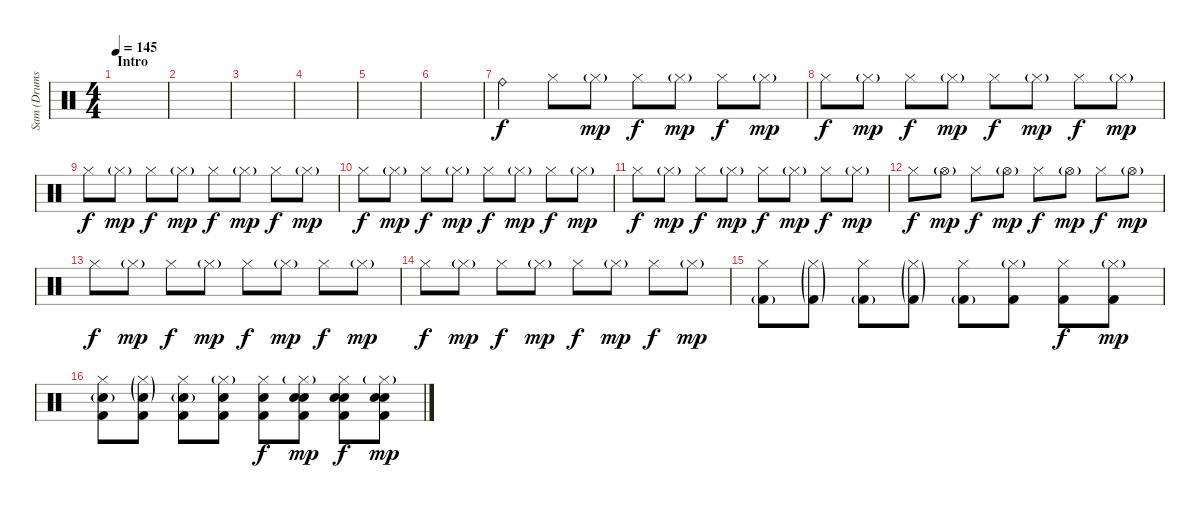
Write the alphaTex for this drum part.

\track ("Sam (Drums)" "Sam (Drums") {instrument percussion}
\staff {score}
\articulation defaults
\ts (4 4)
\section ("" "Intro")
\tempo 145
\clef neutral
\ks c
|
|
|
|
|
|
"Ride (bell)".4 "Hi-Hat (closed)".8 "Hi-Hat (closed)"{g}.8{dy mp} "Hi-Hat (closed)".8{dy f} "Hi-Hat (closed)"{g}.8{dy mp} "Hi-Hat (closed)".8{dy f} "Hi-Hat (closed)"{g}.8{dy mp} |
"Hi-Hat (closed)".8{dy f} "Hi-Hat (closed)"{g}.8{dy mp} "Hi-Hat (closed)".8{dy f} "Hi-Hat (closed)"{g}.8{dy mp} "Hi-Hat (closed)".8{dy f} "Hi-Hat (closed)"{g}.8{dy mp} "Hi-Hat (closed)".8{dy f} "Hi-Hat (closed)"{g}.8{dy mp} |
"Hi-Hat (closed)".8{dy f} "Hi-Hat (closed)"{g}.8{dy mp} "Hi-Hat (closed)".8{dy f} "Hi-Hat (closed)"{g}.8{dy mp} "Hi-Hat (closed)".8{dy f} "Hi-Hat (closed)"{g}.8{dy mp} "Hi-Hat (closed)".8{dy f} "Hi-Hat (closed)"{g}.8{dy mp} |
"Hi-Hat (closed)".8{dy f} "Hi-Hat (closed)"{g}.8{dy mp} "Hi-Hat (closed)".8{dy f} "Hi-Hat (closed)"{g}.8{dy mp} "Hi-Hat (closed)".8{dy f} "Hi-Hat (closed)"{g}.8{dy mp} "Hi-Hat (closed)".8{dy f} "Hi-Hat (closed)"{g}.8{dy mp} |
"Hi-Hat (closed)".8{dy f} "Hi-Hat (closed)"{g}.8{dy mp} "Hi-Hat (closed)".8{dy f} "Hi-Hat (closed)"{g}.8{dy mp} "Hi-Hat (closed)".8{dy f} "Hi-Hat (closed)"{g}.8{dy mp} "Hi-Hat (closed)".8{dy f} "Hi-Hat (closed)"{g}.8{dy mp} |
"Hi-Hat (closed)".8{dy f} "Hi-Hat (open)"{g}.8{dy mp} "Hi-Hat (closed)".8{dy f} "Hi-Hat (open)"{g}.8{dy mp} "Hi-Hat (closed)".8{dy f} "Hi-Hat (open)"{g}.8{dy mp} "Hi-Hat (closed)".8{dy f} "Hi-Hat (open)"{g}.8{dy mp} |
"Hi-Hat (closed)".8{dy f} "Hi-Hat (closed)"{g}.8{dy mp} "Hi-Hat (closed)".8{dy f} "Hi-Hat (closed)"{g}.8{dy mp} "Hi-Hat (closed)".8{dy f} "Hi-Hat (closed)"{g}.8{dy mp} "Hi-Hat (closed)".8{dy f} "Hi-Hat (closed)"{g}.8{dy mp} |
"Hi-Hat (closed)".8{dy f} "Hi-Hat (closed)"{g}.8{dy mp} "Hi-Hat (closed)".8{dy f} "Hi-Hat (closed)"{g}.8{dy mp} "Hi-Hat (closed)".8{dy f} "Hi-Hat (closed)"{g}.8{dy mp} "Hi-Hat (closed)".8{dy f} "Hi-Hat (closed)"{g}.8{dy mp} |
("Hi-Hat (closed)" "Kick (hit) 2"{g}).8 ("Hi-Hat (closed)"{g} "Kick (hit) 2"{g}).8 ("Hi-Hat (closed)" "Kick (hit) 2"{g}).8 ("Hi-Hat (closed)"{g} "Kick (hit) 2"{g}).8 ("Hi-Hat (closed)" "Kick (hit) 2"{g}).8 ("Hi-Hat (closed)"{g} "Kick (hit) 2").8 ("Hi-Hat (closed)" "Kick (hit) 2").8{dy f} ("Hi-Hat (closed)"{g} "Kick (hit) 2").8{dy mp} |
("Hi-Hat (closed)" "Electric Snare (hit)"{g} "Kick (hit) 2").8 ("Hi-Hat (closed)"{g} "Electric Snare (hit)"{g} "Kick (hit) 2").8 ("Hi-Hat (closed)" "Electric Snare (hit)"{g} "Kick (hit) 2").8 ("Hi-Hat (closed)"{g} "Electric Snare (hit)" "Kick (hit) 2").8 ("Hi-Hat (closed)" "Electric Snare (hit)" "Kick (hit) 2").8{dy f} ("Hi-Hat (closed)"{g} "Electric Snare (hit)" "Snare (hit) 2" "Kick (hit) 2").8{dy mp} ("Hi-Hat (closed)" "Electric Snare (hit)" "Snare (hit) 2" "Kick (hit) 2").8{dy f} ("Hi-Hat (closed)"{g} "Electric Snare (hit)" "Snare (hit) 2" "Kick (hit) 2").8{dy mp}
